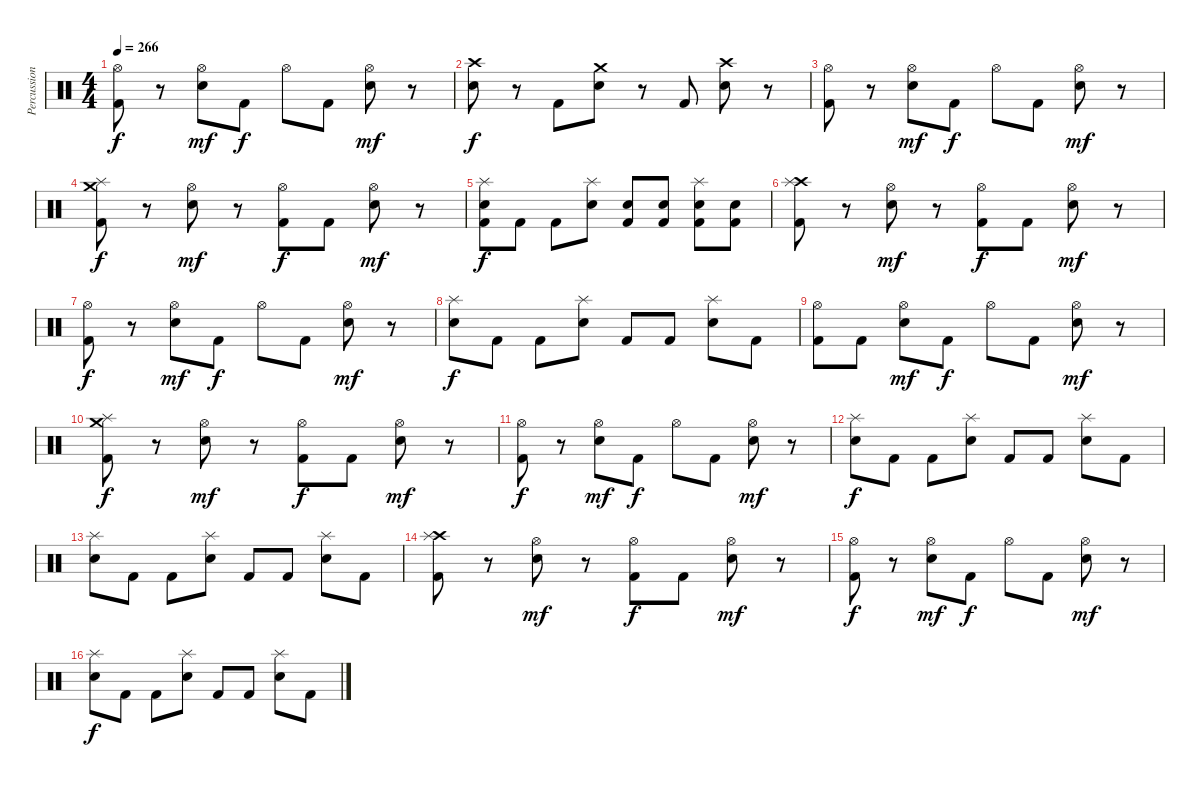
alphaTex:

\track ("Percussion" "Percussion") {instrument percussion}
\staff {score}
\articulation defaults
\ts (4 4)
\tempo 266
\clef neutral
\ks c
("Kick (hit) 2" "Hi-Hat (open)").8{dy f} r.8 ("Snare (hit) 2" "Hi-Hat (open)").8{dy mf} "Kick (hit) 2".8{dy f} "Hi-Hat (open)".8 "Kick (hit) 2".8 ("Snare (hit) 2" "Hi-Hat (open)").8{dy mf} r.8 |
("Crash high (hit)" "Snare (hit) 2").8{dy f} r.8 "Kick (hit) 2".8 ("Crash medium (hit)" "Snare (hit) 2").8 r.8 "Kick (hit) 2".8 ("Crash high (hit)" "Snare (hit) 2").8 r.8 |
("Kick (hit) 2" "Hi-Hat (open)").8 r.8 ("Snare (hit) 2" "Hi-Hat (open)").8{dy mf} "Kick (hit) 2".8{dy f} "Hi-Hat (open)".8 "Kick (hit) 2".8 ("Snare (hit) 2" "Hi-Hat (open)").8{dy mf} r.8 |
("Kick (hit) 2" "Splash (hit)" "Crash medium (hit)").8{dy f} r.8 ("Snare (hit) 2" "Hi-Hat (open)").8{dy mf} r.8 ("Kick (hit) 2" "Hi-Hat (open)").8{dy f} "Kick (hit) 2".8 ("Snare (hit) 2" "Hi-Hat (open)").8{dy mf} r.8 |
("Snare (hit) 2" "Splash (hit)" "Kick (hit) 2").8{dy f} "Kick (hit) 2".8 "Kick (hit) 2".8 ("Snare (hit) 2" "Splash (hit)").8 ("Snare (hit) 2" "Kick (hit) 2").8 ("Snare (hit) 2" "Kick (hit) 2").8 ("Snare (hit) 2" "Kick (hit) 2" "Splash (hit)").8 ("Snare (hit) 2" "Kick (hit) 2").8 |
("Crash high (hit)" "Splash (hit)" "Kick (hit) 2").8 r.8 ("Snare (hit) 2" "Hi-Hat (open)").8{dy mf} r.8 ("Kick (hit) 2" "Hi-Hat (open)").8{dy f} "Kick (hit) 2".8 ("Snare (hit) 2" "Hi-Hat (open)").8{dy mf} r.8 |
("Kick (hit) 2" "Hi-Hat (open)").8{dy f} r.8 ("Snare (hit) 2" "Hi-Hat (open)").8{dy mf} "Kick (hit) 2".8{dy f} "Hi-Hat (open)".8 "Kick (hit) 2".8 ("Snare (hit) 2" "Hi-Hat (open)").8{dy mf} r.8 |
("Snare (hit) 2" "Splash (hit)").8{dy f} "Kick (hit) 2".8 "Kick (hit) 2".8 ("Snare (hit) 2" "Splash (hit)").8 "Kick (hit) 2".8 "Kick (hit) 2".8 ("Snare (hit) 2" "Splash (hit)").8 "Kick (hit) 2".8 |
("Hi-Hat (open)" "Kick (hit) 2").8 "Kick (hit) 2".8 ("Hi-Hat (open)" "Snare (hit) 2").8{dy mf} "Kick (hit) 2".8{dy f} "Hi-Hat (open)".8 "Kick (hit) 2".8 ("Hi-Hat (open)" "Snare (hit) 2").8{dy mf} r.8 |
("Crash medium (hit)" "Splash (hit)" "Kick (hit) 2").8{dy f} r.8 ("Snare (hit) 2" "Hi-Hat (open)").8{dy mf} r.8 ("Kick (hit) 2" "Hi-Hat (open)").8{dy f} "Kick (hit) 2".8 ("Snare (hit) 2" "Hi-Hat (open)").8{dy mf} r.8 |
("Kick (hit) 2" "Hi-Hat (open)").8{dy f} r.8 ("Snare (hit) 2" "Hi-Hat (open)").8{dy mf} "Kick (hit) 2".8{dy f} "Hi-Hat (open)".8 "Kick (hit) 2".8 ("Snare (hit) 2" "Hi-Hat (open)").8{dy mf} r.8 |
("Snare (hit) 2" "Splash (hit)").8{dy f} "Kick (hit) 2".8 "Kick (hit) 2".8 ("Splash (hit)" "Snare (hit) 2").8 "Kick (hit) 2".8 "Kick (hit) 2".8 ("Splash (hit)" "Snare (hit) 2").8 "Kick (hit) 2".8 |
("Snare (hit) 2" "Splash (hit)").8 "Kick (hit) 2".8 "Kick (hit) 2".8 ("Snare (hit) 2" "Splash (hit)").8 "Kick (hit) 2".8 "Kick (hit) 2".8 ("Snare (hit) 2" "Splash (hit)").8 "Kick (hit) 2".8 |
("Crash high (hit)" "Splash (hit)" "Kick (hit) 2").8 r.8 ("Snare (hit) 2" "Hi-Hat (open)").8{dy mf} r.8 ("Kick (hit) 2" "Hi-Hat (open)").8{dy f} "Kick (hit) 2".8 ("Snare (hit) 2" "Hi-Hat (open)").8{dy mf} r.8 |
("Kick (hit) 2" "Hi-Hat (open)").8{dy f} r.8 ("Snare (hit) 2" "Hi-Hat (open)").8{dy mf} "Kick (hit) 2".8{dy f} "Hi-Hat (open)".8 "Kick (hit) 2".8 ("Snare (hit) 2" "Hi-Hat (open)").8{dy mf} r.8 |
("Snare (hit) 2" "Splash (hit)").8{dy f} "Kick (hit) 2".8 "Kick (hit) 2".8 ("Snare (hit) 2" "Splash (hit)").8 "Kick (hit) 2".8 "Kick (hit) 2".8 ("Snare (hit) 2" "Splash (hit)").8 "Kick (hit) 2".8
